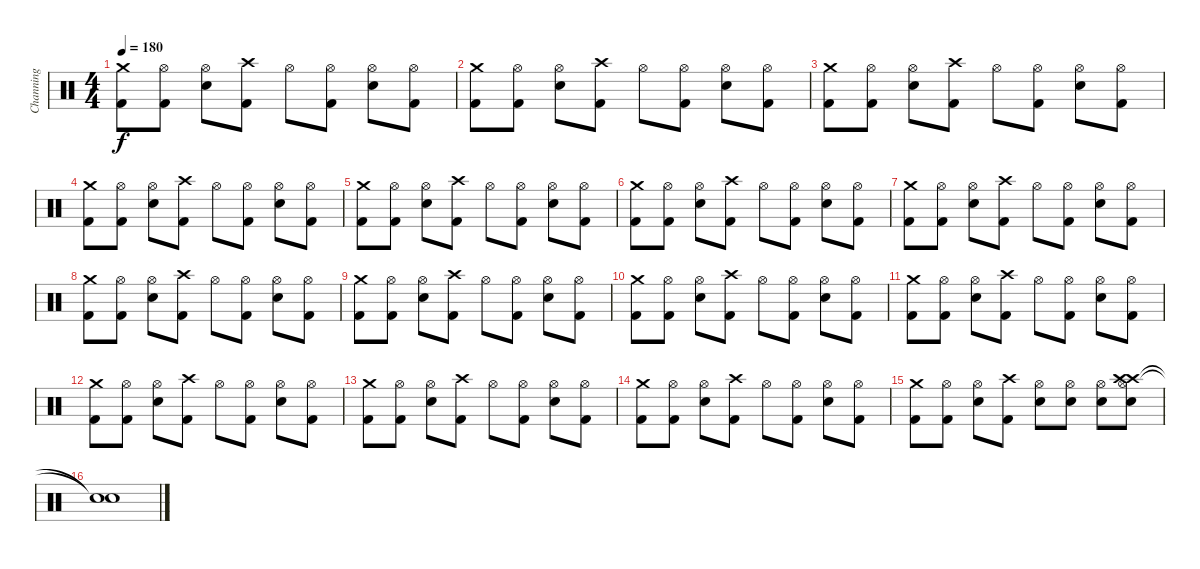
\track ("Channing" "Channing") {instrument percussion}
\staff {score}
\articulation defaults
\ts (4 4)
\tempo 180
\clef neutral
\ks c
("Crash medium (hit)" "Kick (hit) 2").8{dy f} ("Hi-Hat (open)" "Kick (hit) 2").8 ("Hi-Hat (open)" "Snare (hit) 2").8 ("Crash high (hit)" "Kick (hit) 2").8 "Hi-Hat (open)".8 ("Hi-Hat (open)" "Kick (hit) 2").8 ("Hi-Hat (open)" "Snare (hit) 2").8 ("Hi-Hat (open)" "Kick (hit) 2").8 |
("Crash medium (hit)" "Kick (hit) 2").8 ("Hi-Hat (open)" "Kick (hit) 2").8 ("Hi-Hat (open)" "Snare (hit) 2").8 ("Crash high (hit)" "Kick (hit) 2").8 "Hi-Hat (open)".8 ("Hi-Hat (open)" "Kick (hit) 2").8 ("Hi-Hat (open)" "Snare (hit) 2").8 ("Hi-Hat (open)" "Kick (hit) 2").8 |
("Crash medium (hit)" "Kick (hit) 2").8 ("Hi-Hat (open)" "Kick (hit) 2").8 ("Hi-Hat (open)" "Snare (hit) 2").8 ("Crash high (hit)" "Kick (hit) 2").8 "Hi-Hat (open)".8 ("Hi-Hat (open)" "Kick (hit) 2").8 ("Hi-Hat (open)" "Snare (hit) 2").8 ("Hi-Hat (open)" "Kick (hit) 2").8 |
("Crash medium (hit)" "Kick (hit) 2").8 ("Hi-Hat (open)" "Kick (hit) 2").8 ("Hi-Hat (open)" "Snare (hit) 2").8 ("Crash high (hit)" "Kick (hit) 2").8 "Hi-Hat (open)".8 ("Hi-Hat (open)" "Kick (hit) 2").8 ("Hi-Hat (open)" "Snare (hit) 2").8 ("Hi-Hat (open)" "Kick (hit) 2").8 |
("Crash medium (hit)" "Kick (hit) 2").8 ("Hi-Hat (open)" "Kick (hit) 2").8 ("Hi-Hat (open)" "Snare (hit) 2").8 ("Crash high (hit)" "Kick (hit) 2").8 "Hi-Hat (open)".8 ("Hi-Hat (open)" "Kick (hit) 2").8 ("Hi-Hat (open)" "Snare (hit) 2").8 ("Hi-Hat (open)" "Kick (hit) 2").8 |
("Crash medium (hit)" "Kick (hit) 2").8 ("Hi-Hat (open)" "Kick (hit) 2").8 ("Hi-Hat (open)" "Snare (hit) 2").8 ("Crash high (hit)" "Kick (hit) 2").8 "Hi-Hat (open)".8 ("Hi-Hat (open)" "Kick (hit) 2").8 ("Hi-Hat (open)" "Snare (hit) 2").8 ("Hi-Hat (open)" "Kick (hit) 2").8 |
("Crash medium (hit)" "Kick (hit) 2").8 ("Hi-Hat (open)" "Kick (hit) 2").8 ("Hi-Hat (open)" "Snare (hit) 2").8 ("Crash high (hit)" "Kick (hit) 2").8 "Hi-Hat (open)".8 ("Hi-Hat (open)" "Kick (hit) 2").8 ("Hi-Hat (open)" "Snare (hit) 2").8 ("Hi-Hat (open)" "Kick (hit) 2").8 |
("Crash medium (hit)" "Kick (hit) 2").8 ("Hi-Hat (open)" "Kick (hit) 2").8 ("Hi-Hat (open)" "Snare (hit) 2").8 ("Crash high (hit)" "Kick (hit) 2").8 "Hi-Hat (open)".8 ("Hi-Hat (open)" "Kick (hit) 2").8 ("Hi-Hat (open)" "Snare (hit) 2").8 ("Hi-Hat (open)" "Kick (hit) 2").8 |
("Crash medium (hit)" "Kick (hit) 2").8 ("Hi-Hat (open)" "Kick (hit) 2").8 ("Hi-Hat (open)" "Snare (hit) 2").8 ("Crash high (hit)" "Kick (hit) 2").8 "Hi-Hat (open)".8 ("Hi-Hat (open)" "Kick (hit) 2").8 ("Hi-Hat (open)" "Snare (hit) 2").8 ("Hi-Hat (open)" "Kick (hit) 2").8 |
("Crash medium (hit)" "Kick (hit) 2").8 ("Hi-Hat (open)" "Kick (hit) 2").8 ("Hi-Hat (open)" "Snare (hit) 2").8 ("Crash high (hit)" "Kick (hit) 2").8 "Hi-Hat (open)".8 ("Hi-Hat (open)" "Kick (hit) 2").8 ("Hi-Hat (open)" "Snare (hit) 2").8 ("Hi-Hat (open)" "Kick (hit) 2").8 |
("Crash medium (hit)" "Kick (hit) 2").8 ("Hi-Hat (open)" "Kick (hit) 2").8 ("Hi-Hat (open)" "Snare (hit) 2").8 ("Crash high (hit)" "Kick (hit) 2").8 "Hi-Hat (open)".8 ("Hi-Hat (open)" "Kick (hit) 2").8 ("Hi-Hat (open)" "Snare (hit) 2").8 ("Hi-Hat (open)" "Kick (hit) 2").8 |
("Crash medium (hit)" "Kick (hit) 2").8 ("Hi-Hat (open)" "Kick (hit) 2").8 ("Hi-Hat (open)" "Snare (hit) 2").8 ("Crash high (hit)" "Kick (hit) 2").8 "Hi-Hat (open)".8 ("Hi-Hat (open)" "Kick (hit) 2").8 ("Hi-Hat (open)" "Snare (hit) 2").8 ("Hi-Hat (open)" "Kick (hit) 2").8 |
("Crash medium (hit)" "Kick (hit) 2").8 ("Hi-Hat (open)" "Kick (hit) 2").8 ("Hi-Hat (open)" "Snare (hit) 2").8 ("Crash high (hit)" "Kick (hit) 2").8 "Hi-Hat (open)".8 ("Hi-Hat (open)" "Kick (hit) 2").8 ("Hi-Hat (open)" "Snare (hit) 2").8 ("Hi-Hat (open)" "Kick (hit) 2").8 |
("Crash medium (hit)" "Kick (hit) 2").8 ("Hi-Hat (open)" "Kick (hit) 2").8 ("Hi-Hat (open)" "Snare (hit) 2").8 ("Crash high (hit)" "Kick (hit) 2").8 "Hi-Hat (open)".8 ("Hi-Hat (open)" "Kick (hit) 2").8 ("Hi-Hat (open)" "Snare (hit) 2").8 ("Hi-Hat (open)" "Kick (hit) 2").8 |
("Crash medium (hit)" "Kick (hit) 2").8 ("Hi-Hat (open)" "Kick (hit) 2").8 ("Hi-Hat (open)" "Snare (hit) 2").8 ("Crash high (hit)" "Kick (hit) 2").8 ("Hi-Hat (open)" "Snare (hit) 2").8 ("Hi-Hat (open)" "Snare (hit) 2").8 ("Hi-Hat (open)" "Snare (hit) 2").8 ("Hi-Hat (open)" "Crash high (hit)" "Snare (hit) 2" "Crash high (hit)").8 |
("Snare (hit)"{t} "Snare (hit)"{t}).1
